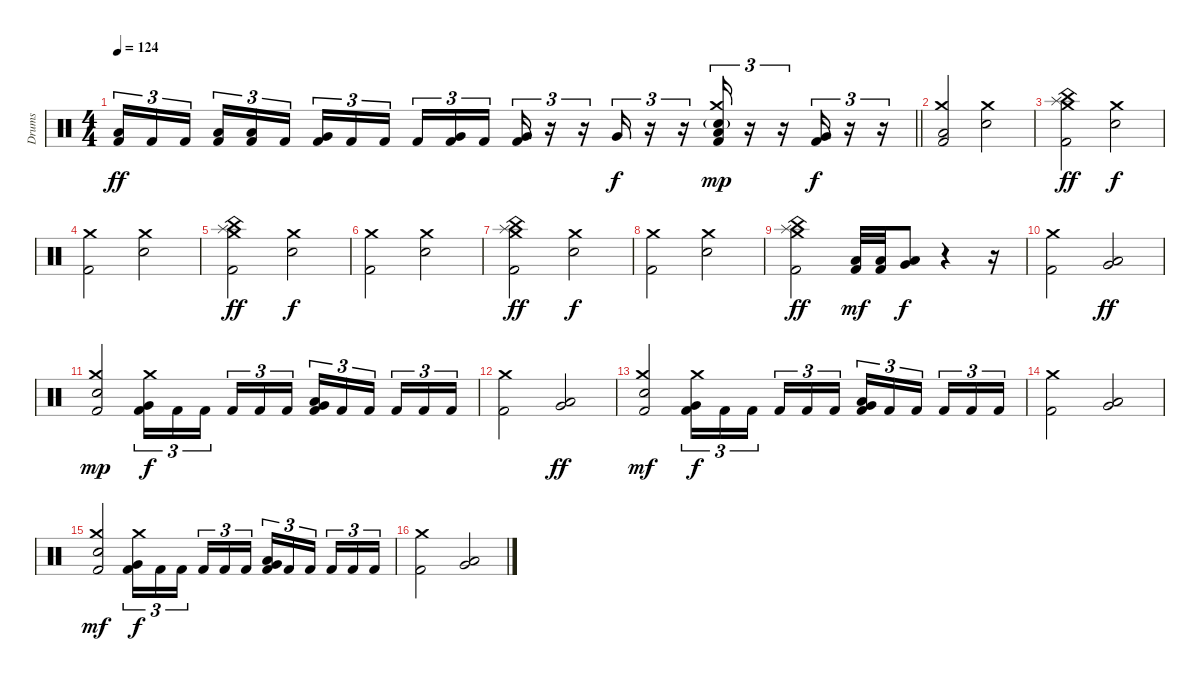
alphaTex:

\track ("Drums" "Drums") {instrument percussion}
\staff {score}
\articulation defaults
\ts (4 4)
\tempo 124
\clef neutral
\barLineRight lightlight
\ks c
("Low Tom (hit)" "Kick (hit) 2").16{tu (3 2) dy ff} "Kick (hit) 2".16{tu (3 2)} "Kick (hit) 2".16{tu (3 2)} ("Low Tom (hit)" "Kick (hit) 2").16{tu (3 2)} ("Low Tom (hit)" "Kick (hit) 2").16{tu (3 2)} "Kick (hit) 2".16{tu (3 2)} ("Very Low Tom (hit)" "Kick (hit) 2").16{tu (3 2)} "Kick (hit) 2".16{tu (3 2)} "Kick (hit) 2".16{tu (3 2)} "Kick (hit) 2".16{tu (3 2)} ("Very Low Tom (hit)" "Kick (hit) 2").16{tu (3 2)} "Kick (hit) 2".16{tu (3 2)} ("Very Low Tom (hit)" "Kick (hit) 2").16{tu (3 2)} r.16{tu (3 2)} r.16{tu (3 2)} "Very Low Tom (hit)".16{tu (3 2) dy f} r.16{tu (3 2)} r.16{tu (3 2)} ("Crash medium (hit)" "Low Floor Tom (hit)" "Electric Snare (hit)"{g} "Kick (hit) 2").16{tu (3 2) dy mp} r.16{tu (3 2)} r.16{tu (3 2)} ("Very Low Tom (hit)" "Kick (hit) 2").16{tu (3 2) dy f} r.16{tu (3 2)} r.16{tu (3 2)} |
("Crash medium (hit)" "Low Floor Tom (hit)" "Kick (hit) 2").2 ("Crash medium (hit)" "Electric Snare (hit)").2 |
("Crash medium (hit)" "Splash (hit)" "China (hit)" "Kick (hit) 2").2{dy ff} ("Crash medium (hit)" "Electric Snare (hit)").2{dy f} |
("Crash medium (hit)" "Kick (hit) 2").2 ("Crash medium (hit)" "Electric Snare (hit)").2 |
("Crash medium (hit)" "Splash (hit)" "China (hit)" "Kick (hit) 2").2{dy ff} ("Crash medium (hit)" "Electric Snare (hit)").2{dy f} |
("Crash medium (hit)" "Kick (hit) 2").2 ("Crash medium (hit)" "Electric Snare (hit)").2 |
("Crash medium (hit)" "Splash (hit)" "China (hit)" "Kick (hit) 2").2{dy ff} ("Crash medium (hit)" "Electric Snare (hit)").2{dy f} |
("Crash medium (hit)" "Kick (hit) 2").2 ("Crash medium (hit)" "Electric Snare (hit)").2 |
("Crash medium (hit)" "Splash (hit)" "China (hit)" "Kick (hit) 2").2{dy ff} ("Low Floor Tom (hit)" "Kick (hit) 2").32{dy mf} ("Low Floor Tom (hit)" "Kick (hit) 2").32 ("Low Floor Tom (hit)" "Very Low Tom (hit)").8{dy f} r.4 r.16 |
("Crash medium (hit)" "Kick (hit) 2").2 ("Low Floor Tom (hit)" "Very Low Tom (hit)").2{dy ff} |
("Crash medium (hit)" "Electric Snare (hit)" "Kick (hit) 2").2{dy mp} ("Crash medium (hit)" "Very Low Tom (hit)" "Kick (hit) 2").16{tu (3 2) dy f} "Kick (hit) 2".16{tu (3 2)} "Kick (hit) 2".16{tu (3 2)} "Kick (hit) 2".16{tu (3 2)} "Kick (hit) 2".16{tu (3 2)} "Kick (hit) 2".16{tu (3 2)} ("Very Low Tom (hit)" "Low Tom (hit)" "Kick (hit) 2").16{tu (3 2)} "Kick (hit) 2".16{tu (3 2)} "Kick (hit) 2".16{tu (3 2)} "Kick (hit) 2".16{tu (3 2)} "Kick (hit) 2".16{tu (3 2)} "Kick (hit) 2".16{tu (3 2)} |
("Crash medium (hit)" "Kick (hit) 2").2 ("Low Floor Tom (hit)" "Very Low Tom (hit)").2{dy ff} |
("Crash medium (hit)" "Electric Snare (hit)" "Kick (hit) 2").2{dy mf} ("Crash medium (hit)" "Very Low Tom (hit)" "Kick (hit) 2").16{tu (3 2) dy f} "Kick (hit) 2".16{tu (3 2)} "Kick (hit) 2".16{tu (3 2)} "Kick (hit) 2".16{tu (3 2)} "Kick (hit) 2".16{tu (3 2)} "Kick (hit) 2".16{tu (3 2)} ("Very Low Tom (hit)" "Low Tom (hit)" "Kick (hit) 2").16{tu (3 2)} "Kick (hit) 2".16{tu (3 2)} "Kick (hit) 2".16{tu (3 2)} "Kick (hit) 2".16{tu (3 2)} "Kick (hit) 2".16{tu (3 2)} "Kick (hit) 2".16{tu (3 2)} |
("Crash medium (hit)" "Kick (hit) 2").2 ("Low Floor Tom (hit)" "Very Low Tom (hit)").2 |
("Crash medium (hit)" "Electric Snare (hit)" "Kick (hit) 2").2{dy mf} ("Crash medium (hit)" "Very Low Tom (hit)" "Kick (hit) 2").16{tu (3 2) dy f} "Kick (hit) 2".16{tu (3 2)} "Kick (hit) 2".16{tu (3 2)} "Kick (hit) 2".16{tu (3 2)} "Kick (hit) 2".16{tu (3 2)} "Kick (hit) 2".16{tu (3 2)} ("Very Low Tom (hit)" "Low Tom (hit)" "Kick (hit) 2").16{tu (3 2)} "Kick (hit) 2".16{tu (3 2)} "Kick (hit) 2".16{tu (3 2)} "Kick (hit) 2".16{tu (3 2)} "Kick (hit) 2".16{tu (3 2)} "Kick (hit) 2".16{tu (3 2)} |
("Crash medium (hit)" "Kick (hit) 2").2 ("Low Floor Tom (hit)" "Very Low Tom (hit)").2
